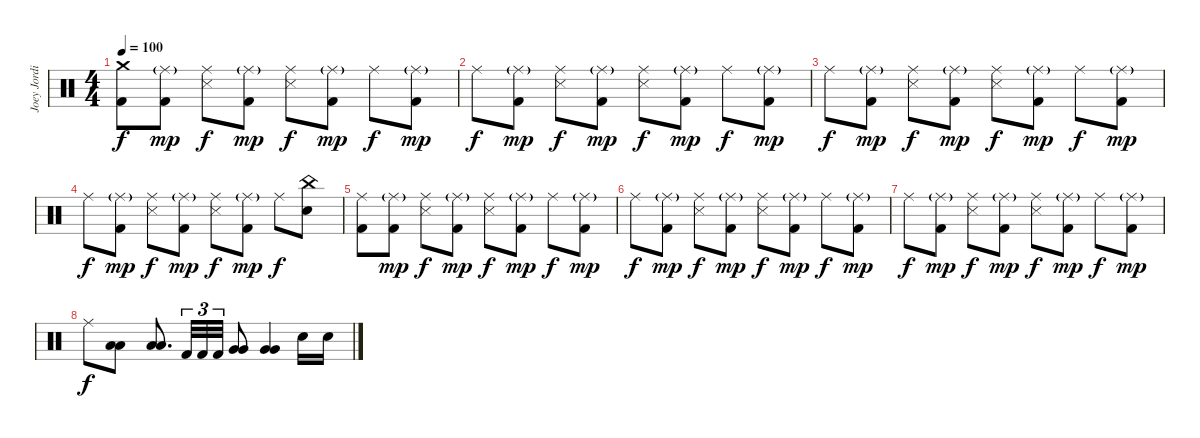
\track ("Joey Jordison" "Joey Jordi") {instrument percussion}
\staff {score}
\articulation defaults
\ts (4 4)
\tempo 100
\clef neutral
\ks c
("Crash medium (hit)" "Kick (hit) 2").8{dy f} ("Ride (middle)"{g} "Kick (hit) 2").8{dy mp} ("Ride (middle)" "Snare (side stick) 3").8{dy f} ("Ride (middle)"{g} "Kick (hit) 2").8{dy mp} ("Ride (middle)" "Snare (side stick) 3").8{dy f} ("Ride (middle)"{g} "Kick (hit) 2").8{dy mp} "Ride (middle)".8{dy f} ("Ride (middle)"{g} "Kick (hit) 2").8{dy mp} |
"Ride (middle)".8{dy f} ("Ride (middle)"{g} "Kick (hit) 2").8{dy mp} ("Ride (middle)" "Snare (side stick) 3").8{dy f} ("Ride (middle)"{g} "Kick (hit) 2").8{dy mp} ("Ride (middle)" "Snare (side stick) 3").8{dy f} ("Ride (middle)"{g} "Kick (hit) 2").8{dy mp} "Ride (middle)".8{dy f} ("Ride (middle)"{g} "Kick (hit) 2").8{dy mp} |
"Ride (middle)".8{dy f} ("Ride (middle)"{g} "Kick (hit) 2").8{dy mp} ("Ride (middle)" "Snare (side stick) 3").8{dy f} ("Ride (middle)"{g} "Kick (hit) 2").8{dy mp} ("Ride (middle)" "Snare (side stick) 3").8{dy f} ("Ride (middle)"{g} "Kick (hit) 2").8{dy mp} "Ride (middle)".8{dy f} ("Ride (middle)"{g} "Kick (hit) 2").8{dy mp} |
"Ride (middle)".8{dy f} ("Ride (middle)"{g} "Kick (hit) 2").8{dy mp} ("Ride (middle)" "Snare (side stick) 3").8{dy f} ("Ride (middle)"{g} "Kick (hit) 2").8{dy mp} ("Ride (middle)" "Snare (side stick) 3").8{dy f} ("Ride (middle)"{g} "Kick (hit) 2").8{dy mp} "Ride (middle)".8{dy f} ("China (hit)" "Electric Snare (hit)").8 |
("Ride (middle)" "Kick (hit) 2").8 ("Ride (middle)"{g} "Kick (hit) 2").8{dy mp} ("Ride (middle)" "Snare (side stick) 3").8{dy f} ("Ride (middle)"{g} "Kick (hit) 2").8{dy mp} ("Ride (middle)" "Snare (side stick) 3").8{dy f} ("Ride (middle)"{g} "Kick (hit) 2").8{dy mp} "Ride (middle)".8{dy f} ("Ride (middle)"{g} "Kick (hit) 2").8{dy mp} |
"Ride (middle)".8{dy f} ("Ride (middle)"{g} "Kick (hit) 2").8{dy mp} ("Ride (middle)" "Snare (side stick) 3").8{dy f} ("Ride (middle)"{g} "Kick (hit) 2").8{dy mp} ("Ride (middle)" "Snare (side stick) 3").8{dy f} ("Ride (middle)"{g} "Kick (hit) 2").8{dy mp} "Ride (middle)".8{dy f} ("Ride (middle)"{g} "Kick (hit) 2").8{dy mp} |
"Ride (middle)".8{dy f} ("Ride (middle)"{g} "Kick (hit) 2").8{dy mp} ("Ride (middle)" "Snare (side stick) 3").8{dy f} ("Ride (middle)"{g} "Kick (hit) 2").8{dy mp} ("Ride (middle)" "Snare (side stick) 3").8{dy f} ("Ride (middle)"{g} "Kick (hit) 2").8{dy mp} "Ride (middle)".8{dy f} ("Ride (middle)"{g} "Kick (hit) 2").8{dy mp} |
"Ride (middle)".8{dy f} ("Low Tom (hit)" "Low Tom (hit)").8 ("Low Tom (hit)" "Low Tom (hit)").8{d} "Kick (hit) 2".32{tu (3 2)} "Kick (hit) 2".32{tu (3 2)} "Kick (hit) 2".32{tu (3 2)} ("Very Low Tom (hit)" "Very Low Tom (hit)").8 ("Very Low Tom (hit)" "Very Low Tom (hit)").4 "Electric Snare (hit)".16 "Electric Snare (hit)".16
